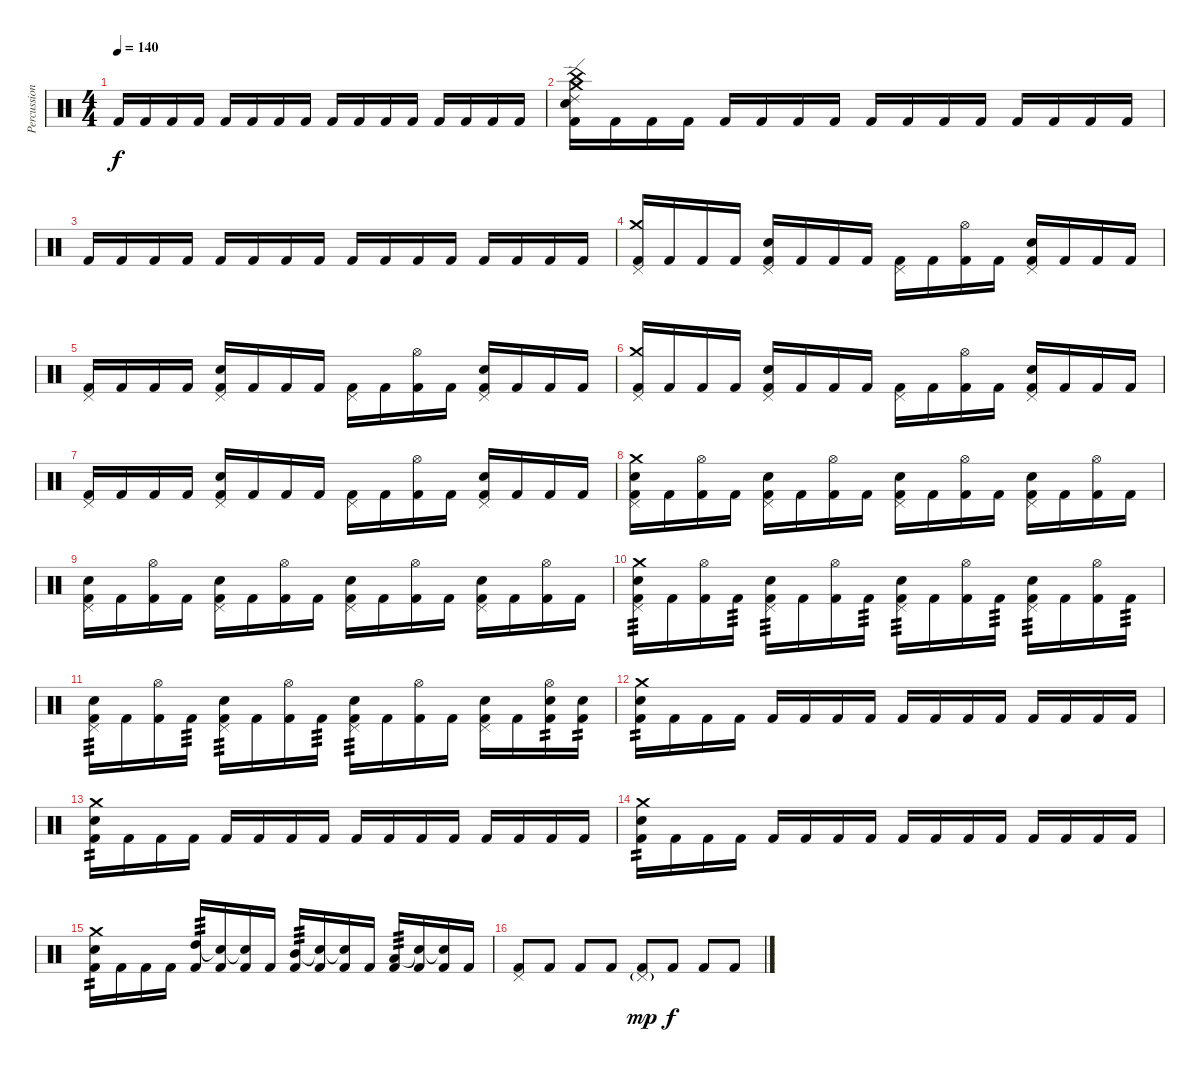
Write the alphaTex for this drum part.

\track ("Percussions" "Percussion") {instrument percussion}
\staff {score}
\articulation defaults
\ts (4 4)
\tempo 140
\clef neutral
\ks c "Kick (hit) 2".16{dy f} "Kick (hit) 2".16 "Kick (hit) 2".16 "Kick (hit) 2".16 "Kick (hit) 2".16 "Kick (hit) 2".16 "Kick (hit) 2".16 "Kick (hit) 2".16 "Kick (hit) 2".16 "Kick (hit) 2".16 "Kick (hit) 2".16 "Kick (hit) 2".16 "Kick (hit) 2".16 "Kick (hit) 2".16 "Kick (hit) 2".16 "Kick (hit) 2".16
|
("Snare (hit) 2" "China (hit)" "Ride (edge) 2" "Crash medium (hit)" "Kick (hit) 2").16 "Kick (hit) 2".16 "Kick (hit) 2".16 "Kick (hit) 2".16 "Kick (hit) 2".16 "Kick (hit) 2".16 "Kick (hit) 2".16 "Kick (hit) 2".16 "Kick (hit) 2".16 "Kick (hit) 2".16 "Kick (hit) 2".16 "Kick (hit) 2".16 "Kick (hit) 2".16 "Kick (hit) 2".16 "Kick (hit) 2".16 "Kick (hit) 2".16 |
"Kick (hit) 2".16 "Kick (hit) 2".16 "Kick (hit) 2".16 "Kick (hit) 2".16 "Kick (hit) 2".16 "Kick (hit) 2".16 "Kick (hit) 2".16 "Kick (hit) 2".16 "Kick (hit) 2".16 "Kick (hit) 2".16 "Kick (hit) 2".16 "Kick (hit) 2".16 "Kick (hit) 2".16 "Kick (hit) 2".16 "Kick (hit) 2".16 "Kick (hit) 2".16 |
("Crash medium (hit)" "Pedal Hi-Hat (hit)" "Kick (hit) 2").16 "Kick (hit) 2".16 "Kick (hit) 2".16 "Kick (hit) 2".16 ("Snare (hit) 2" "Pedal Hi-Hat (hit)" "Kick (hit) 2").16 "Kick (hit) 2".16 "Kick (hit) 2".16 "Kick (hit) 2".16 ("Pedal Hi-Hat (hit)" "Kick (hit) 2").16 "Kick (hit) 2".16 ("Hi-Hat (open)" "Kick (hit) 2").16 "Kick (hit) 2".16 ("Snare (hit) 2" "Pedal Hi-Hat (hit)" "Kick (hit) 2").16 "Kick (hit) 2".16 "Kick (hit) 2".16 "Kick (hit) 2".16 |
("Pedal Hi-Hat (hit)" "Kick (hit) 2").16 "Kick (hit) 2".16 "Kick (hit) 2".16 "Kick (hit) 2".16 ("Snare (hit) 2" "Pedal Hi-Hat (hit)" "Kick (hit) 2").16 "Kick (hit) 2".16 "Kick (hit) 2".16 "Kick (hit) 2".16 ("Pedal Hi-Hat (hit)" "Kick (hit) 2").16 "Kick (hit) 2".16 ("Hi-Hat (open)" "Kick (hit) 2").16 "Kick (hit) 2".16 ("Snare (hit) 2" "Pedal Hi-Hat (hit)" "Kick (hit) 2").16 "Kick (hit) 2".16 "Kick (hit) 2".16 "Kick (hit) 2".16 |
("Crash medium (hit)" "Pedal Hi-Hat (hit)" "Kick (hit) 2").16 "Kick (hit) 2".16 "Kick (hit) 2".16 "Kick (hit) 2".16 ("Snare (hit) 2" "Pedal Hi-Hat (hit)" "Kick (hit) 2").16 "Kick (hit) 2".16 "Kick (hit) 2".16 "Kick (hit) 2".16 ("Pedal Hi-Hat (hit)" "Kick (hit) 2").16 "Kick (hit) 2".16 ("Hi-Hat (open)" "Kick (hit) 2").16 "Kick (hit) 2".16 ("Snare (hit) 2" "Pedal Hi-Hat (hit)" "Kick (hit) 2").16 "Kick (hit) 2".16 "Kick (hit) 2".16 "Kick (hit) 2".16 |
("Pedal Hi-Hat (hit)" "Kick (hit) 2").16 "Kick (hit) 2".16 "Kick (hit) 2".16 "Kick (hit) 2".16 ("Snare (hit) 2" "Pedal Hi-Hat (hit)" "Kick (hit) 2").16 "Kick (hit) 2".16 "Kick (hit) 2".16 "Kick (hit) 2".16 ("Pedal Hi-Hat (hit)" "Kick (hit) 2").16 "Kick (hit) 2".16 ("Hi-Hat (open)" "Kick (hit) 2").16 "Kick (hit) 2".16 ("Snare (hit) 2" "Pedal Hi-Hat (hit)" "Kick (hit) 2").16 "Kick (hit) 2".16 "Kick (hit) 2".16 "Kick (hit) 2".16 |
("Snare (hit) 2" "Crash medium (hit)" "Pedal Hi-Hat (hit)" "Kick (hit) 2").16 "Kick (hit) 2".16 ("Hi-Hat (open)" "Kick (hit) 2").16 "Kick (hit) 2".16 ("Snare (hit) 2" "Pedal Hi-Hat (hit)" "Kick (hit) 2").16 "Kick (hit) 2".16 ("Hi-Hat (open)" "Kick (hit) 2").16 "Kick (hit) 2".16 ("Snare (hit) 2" "Pedal Hi-Hat (hit)" "Kick (hit) 2").16 "Kick (hit) 2".16 ("Hi-Hat (open)" "Kick (hit) 2").16 "Kick (hit) 2".16 ("Snare (hit) 2" "Pedal Hi-Hat (hit)" "Kick (hit) 2").16 "Kick (hit) 2".16 ("Hi-Hat (open)" "Kick (hit) 2").16 "Kick (hit) 2".16 |
("Snare (hit) 2" "Pedal Hi-Hat (hit)" "Kick (hit) 2").16 "Kick (hit) 2".16 ("Hi-Hat (open)" "Kick (hit) 2").16 "Kick (hit) 2".16 ("Snare (hit) 2" "Pedal Hi-Hat (hit)" "Kick (hit) 2").16 "Kick (hit) 2".16 ("Hi-Hat (open)" "Kick (hit) 2").16 "Kick (hit) 2".16 ("Snare (hit) 2" "Pedal Hi-Hat (hit)" "Kick (hit) 2").16 "Kick (hit) 2".16 ("Hi-Hat (open)" "Kick (hit) 2").16 "Kick (hit) 2".16 ("Snare (hit) 2" "Pedal Hi-Hat (hit)" "Kick (hit) 2").16 "Kick (hit) 2".16 ("Hi-Hat (open)" "Kick (hit) 2").16 "Kick (hit) 2".16 |
("Snare (hit) 2" "Crash medium (hit)" "Pedal Hi-Hat (hit)" "Kick (hit) 2").16{tp 3} "Kick (hit) 2".16 ("Hi-Hat (open)" "Kick (hit) 2").16 "Kick (hit) 2".16{tp 3} ("Snare (hit) 2" "Pedal Hi-Hat (hit)" "Kick (hit) 2").16{tp 3} "Kick (hit) 2".16 ("Hi-Hat (open)" "Kick (hit) 2").16 "Kick (hit) 2".16{tp 3} ("Snare (hit) 2" "Pedal Hi-Hat (hit)" "Kick (hit) 2").16{tp 3} "Kick (hit) 2".16 ("Hi-Hat (open)" "Kick (hit) 2").16 "Kick (hit) 2".16{tp 3} ("Snare (hit) 2" "Pedal Hi-Hat (hit)" "Kick (hit) 2").16{tp 3} "Kick (hit) 2".16 ("Hi-Hat (open)" "Kick (hit) 2").16 "Kick (hit) 2".16{tp 3} |
("Snare (hit) 2" "Pedal Hi-Hat (hit)" "Kick (hit) 2").16{tp 3} "Kick (hit) 2".16 ("Hi-Hat (open)" "Kick (hit) 2").16 "Kick (hit) 2".16{tp 3} ("Snare (hit) 2" "Pedal Hi-Hat (hit)" "Kick (hit) 2").16{tp 3} "Kick (hit) 2".16 ("Hi-Hat (open)" "Kick (hit) 2").16 "Kick (hit) 2".16{tp 3} ("Snare (hit) 2" "Pedal Hi-Hat (hit)" "Kick (hit) 2").16{tp 3} "Kick (hit) 2".16 ("Hi-Hat (open)" "Kick (hit) 2").16 "Kick (hit) 2".16 ("Snare (hit) 2" "Pedal Hi-Hat (hit)" "Kick (hit) 2").16 "Kick (hit) 2".16 ("Snare (hit) 2" "Hi-Hat (open)" "Kick (hit) 2").16{tp 2} ("Snare (hit) 2" "Kick (hit) 2").16{tp 2} |
("Snare (hit) 2" "Crash medium (hit)" "Kick (hit) 2").16{tp 2} "Kick (hit) 2".16 "Kick (hit) 2".16 "Kick (hit) 2".16 "Kick (hit) 2".16 "Kick (hit) 2".16 "Kick (hit) 2".16 "Kick (hit) 2".16 "Kick (hit) 2".16 "Kick (hit) 2".16 "Kick (hit) 2".16 "Kick (hit) 2".16 "Kick (hit) 2".16 "Kick (hit) 2".16 "Kick (hit) 2".16 "Kick (hit) 2".16 |
("Snare (hit) 2" "Crash medium (hit)" "Kick (hit) 2").16{tp 2} "Kick (hit) 2".16 "Kick (hit) 2".16 "Kick (hit) 2".16 "Kick (hit) 2".16 "Kick (hit) 2".16 "Kick (hit) 2".16 "Kick (hit) 2".16 "Kick (hit) 2".16 "Kick (hit) 2".16 "Kick (hit) 2".16 "Kick (hit) 2".16 "Kick (hit) 2".16 "Kick (hit) 2".16 "Kick (hit) 2".16 "Kick (hit) 2".16 |
("Snare (hit) 2" "Crash medium (hit)" "Kick (hit) 2").16{tp 2} "Kick (hit) 2".16 "Kick (hit) 2".16 "Kick (hit) 2".16 "Kick (hit) 2".16 "Kick (hit) 2".16 "Kick (hit) 2".16 "Kick (hit) 2".16 "Kick (hit) 2".16 "Kick (hit) 2".16 "Kick (hit) 2".16 "Kick (hit) 2".16 "Kick (hit) 2".16 "Kick (hit) 2".16 "Kick (hit) 2".16 "Kick (hit) 2".16 |
("Snare (hit) 2" "Crash medium (hit)" "Kick (hit) 2").16{tp 2} "Kick (hit) 2".16 "Kick (hit) 2".16 "Kick (hit) 2".16 ("High Tom (hit)" "Kick (hit) 2").16{tp 3} ("Snare (hit)"{t} "Kick (hit) 2").16 ("Snare (hit)"{t} "Kick (hit) 2").16 "Kick (hit) 2".16 ("Mid Tom (hit)" "Kick (hit) 2").16{tp 3} ("Snare (hit)"{t} "Kick (hit) 2").16 ("Snare (hit)"{t} "Kick (hit) 2").16 "Kick (hit) 2".16 ("Low Tom (hit)" "Kick (hit) 2").16{tp 3} ("Snare (hit)"{t} "Kick (hit) 2").16 ("Snare (hit)"{t} "Kick (hit) 2").16 "Kick (hit) 2".16 |
("Pedal Hi-Hat (hit)" "Kick (hit) 2").8 "Kick (hit) 2".8 "Kick (hit) 2".8 "Kick (hit) 2".8 ("Pedal Hi-Hat (hit)"{g} "Kick (hit) 2").8{dy mp} "Kick (hit) 2".8{dy f} "Kick (hit) 2".8 "Kick (hit) 2".8
